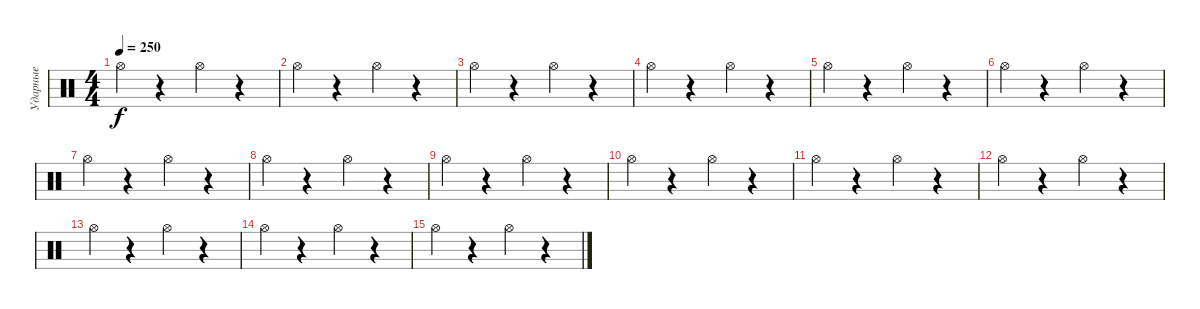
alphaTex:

\track ("Ударные" "Ударные") {instrument percussion}
\staff {score}
\articulation defaults
\ts (4 4)
\tempo 250
\clef neutral
\ks c "Hi-Hat (open)".4{dy f}
r.4 "Hi-Hat (open)".4 r.4 |
"Hi-Hat (open)".4 r.4 "Hi-Hat (open)".4 r.4 |
"Hi-Hat (open)".4 r.4 "Hi-Hat (open)".4 r.4 |
"Hi-Hat (open)".4 r.4 "Hi-Hat (open)".4 r.4 |
"Hi-Hat (open)".4 r.4 "Hi-Hat (open)".4 r.4 |
"Hi-Hat (open)".4 r.4 "Hi-Hat (open)".4 r.4 |
"Hi-Hat (open)".4 r.4 "Hi-Hat (open)".4 r.4 |
"Hi-Hat (open)".4 r.4 "Hi-Hat (open)".4 r.4 |
"Hi-Hat (open)".4 r.4 "Hi-Hat (open)".4 r.4 |
"Hi-Hat (open)".4 r.4 "Hi-Hat (open)".4 r.4 |
"Hi-Hat (open)".4 r.4 "Hi-Hat (open)".4 r.4 |
"Hi-Hat (open)".4 r.4 "Hi-Hat (open)".4 r.4 |
"Hi-Hat (open)".4 r.4 "Hi-Hat (open)".4 r.4 |
"Hi-Hat (open)".4 r.4 "Hi-Hat (open)".4 r.4 |
"Hi-Hat (open)".4 r.4 "Hi-Hat (open)".4 r.4
